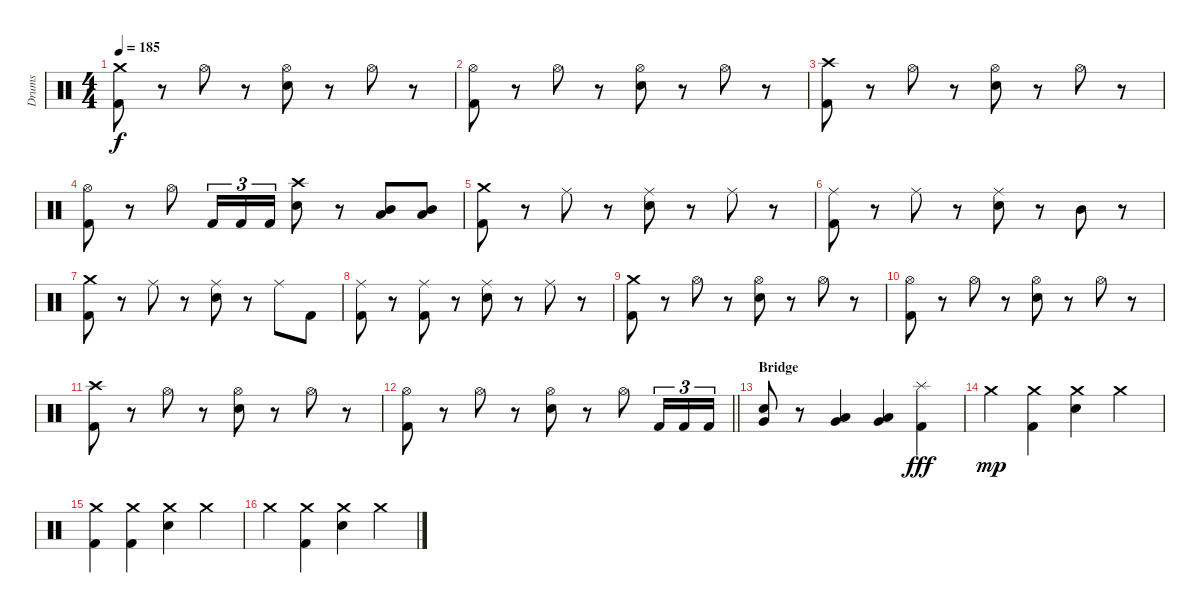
\track ("Drums" "Drums") {instrument percussion}
\staff {score}
\articulation defaults
\ts (4 4)
\tempo 185
\clef neutral
\ks c
("Crash medium (hit)" "Kick (hit) 2").8{dy f} r.8 "Hi-Hat (open)".8 r.8 ("Hi-Hat (open)" "Electric Snare (hit)").8 r.8 "Hi-Hat (open)".8 r.8 |
("Hi-Hat (open)" "Kick (hit) 2").8 r.8 "Hi-Hat (open)".8 r.8 ("Hi-Hat (open)" "Electric Snare (hit)").8 r.8 "Hi-Hat (open)".8 r.8 |
("Crash high (hit)" "Kick (hit) 2").8 r.8 "Hi-Hat (open)".8 r.8 ("Hi-Hat (open)" "Electric Snare (hit)").8 r.8 "Hi-Hat (open)".8 r.8 |
("Hi-Hat (open)" "Kick (hit) 2").8 r.8 "Hi-Hat (open)".8 "Kick (hit) 2".16{tu (3 2)} "Kick (hit) 2".16{tu (3 2)} "Kick (hit) 2".16{tu (3 2)} ("Crash high (hit)" "Electric Snare (hit)").8 r.8 ("Mid Tom (hit)" "Low Tom (hit)").8 ("Mid Tom (hit)" "Low Tom (hit)").8 |
("Crash medium (hit)" "Kick (hit) 2").8 r.8 "Ride (middle)".8 r.8 ("Ride (middle)" "Electric Snare (hit)").8 r.8 "Ride (middle)".8 r.8 |
("Ride (middle)" "Kick (hit) 2").8 r.8 "Ride (middle)".8 r.8 ("Ride (middle)" "Electric Snare (hit)").8 r.8 "Mid Tom (hit)".8 r.8 |
("Crash medium (hit)" "Kick (hit) 2").8 r.8 "Ride (middle)".8 r.8 ("Ride (middle)" "Electric Snare (hit)").8 r.8 "Ride (middle)".8 "Kick (hit) 2".8 |
("Ride (middle)" "Kick (hit) 2").8 r.8 ("Ride (middle)" "Kick (hit) 2").8 r.8 ("Ride (middle)" "Electric Snare (hit)").8 r.8 "Ride (middle)".8 r.8 |
("Crash medium (hit)" "Kick (hit) 2").8 r.8 "Hi-Hat (open)".8 r.8 ("Hi-Hat (open)" "Electric Snare (hit)").8 r.8 "Hi-Hat (open)".8 r.8 |
("Hi-Hat (open)" "Kick (hit) 2").8 r.8 "Hi-Hat (open)".8 r.8 ("Hi-Hat (open)" "Electric Snare (hit)").8 r.8 "Hi-Hat (open)".8 r.8 |
("Crash high (hit)" "Kick (hit) 2").8 r.8 "Hi-Hat (open)".8 r.8 ("Hi-Hat (open)" "Electric Snare (hit)").8 r.8 "Hi-Hat (open)".8 r.8 |
\barLineRight lightlight
("Hi-Hat (open)" "Kick (hit) 2").8 r.8 "Hi-Hat (open)".8 r.8 ("Hi-Hat (open)" "Electric Snare (hit)").8 r.8 "Hi-Hat (open)".8 "Kick (hit) 2".16{tu (3 2)} "Kick (hit) 2".16{tu (3 2)} "Kick (hit) 2".16{tu (3 2)} |
\section ("" "Bridge")
("Very Low Tom (hit)" "Electric Snare (hit)").8 r.8 ("Low Tom (hit)" "Very Low Tom (hit)").4 ("Low Tom (hit)" "Very Low Tom (hit)").4 ("Splash (hit)" "Kick (hit) 2").4{dy fff} |
"Crash medium (hit)".4{dy mp} ("Crash medium (hit)" "Kick (hit) 2").4 ("Crash medium (hit)" "Electric Snare (hit)").4 "Crash medium (hit)".4 |
("Crash medium (hit)" "Kick (hit) 2").4 ("Crash medium (hit)" "Kick (hit) 2").4 ("Crash medium (hit)" "Electric Snare (hit)").4 "Crash medium (hit)".4 |
"Crash medium (hit)".4 ("Crash medium (hit)" "Kick (hit) 2").4 ("Crash medium (hit)" "Electric Snare (hit)").4 "Crash medium (hit)".4
